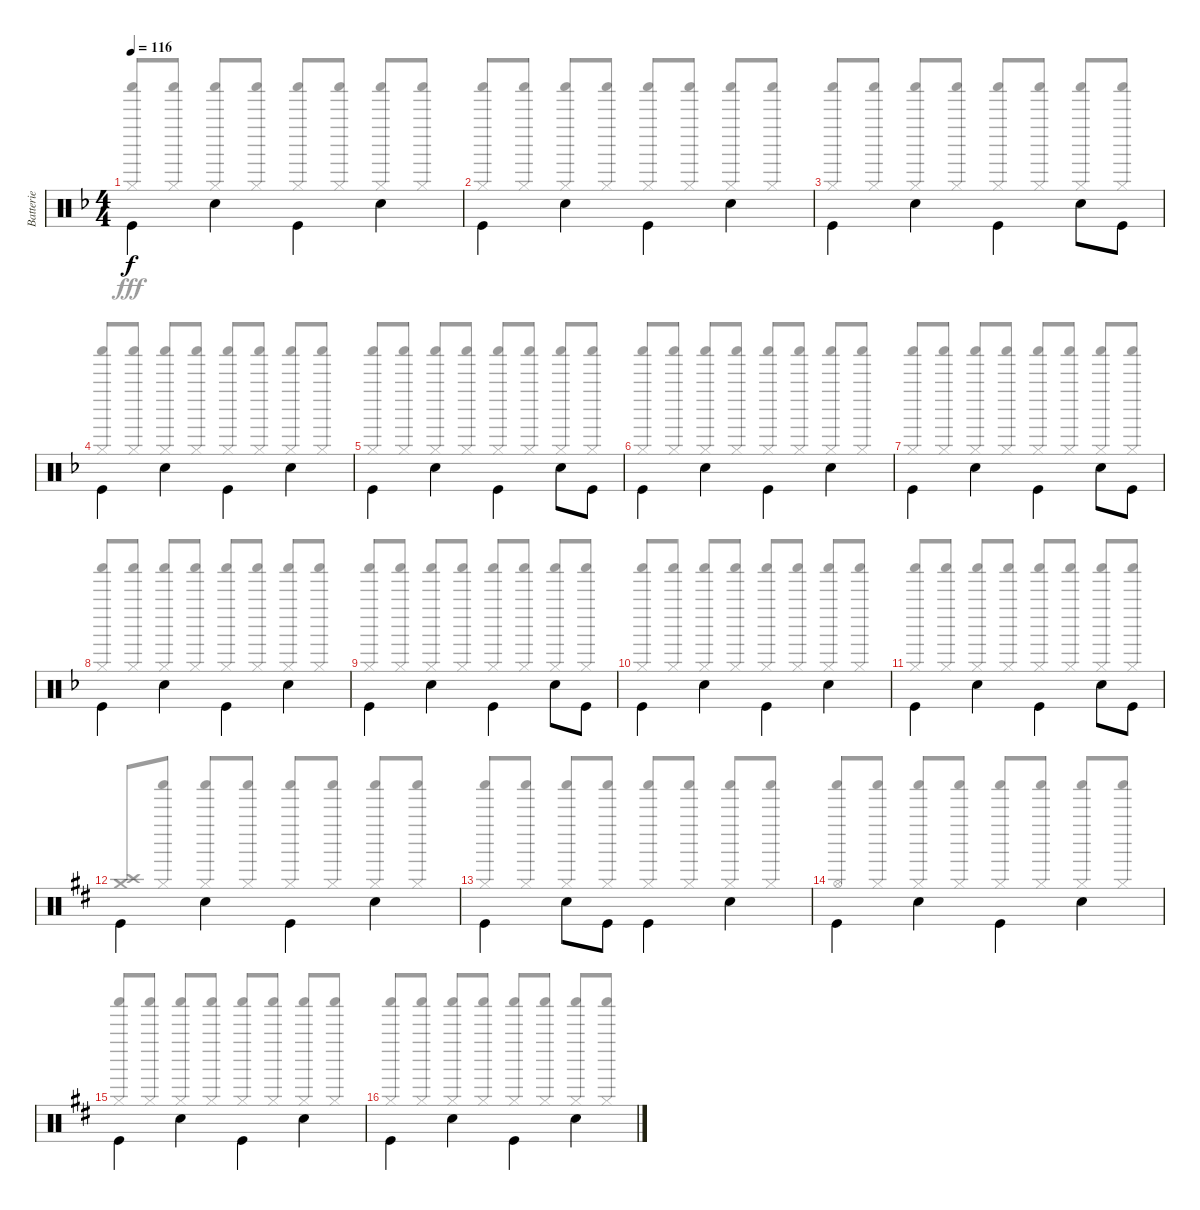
\track ("Batterie" "Batterie") {instrument percussion}
\staff {score}
\articulation defaults
\voice
\ts (4 4)
\tempo 116
\clef neutral
\ks f "Kick (hit)".4{dy f beam Down} "Snare (hit) 2".4{beam Down} "Kick (hit)".4{beam Down} "Snare (hit) 2".4{beam Down}
|
"Kick (hit)".4{beam Down} "Snare (hit) 2".4{beam Down} "Kick (hit)".4{beam Down} "Snare (hit) 2".4{beam Down} |
"Kick (hit)".4{beam Down} "Snare (hit) 2".4{beam Down} "Kick (hit)".4{beam Down} "Snare (hit) 2".8{beam Down} "Kick (hit)".8{beam Down} |
"Kick (hit)".4{beam Down} "Snare (hit) 2".4{beam Down} "Kick (hit)".4{beam Down} "Snare (hit) 2".4{beam Down} |
"Kick (hit)".4{beam Down} "Snare (hit) 2".4{beam Down} "Kick (hit)".4{beam Down} "Snare (hit) 2".8{beam Down} "Kick (hit)".8{beam Down} |
"Kick (hit)".4{beam Down} "Snare (hit) 2".4{beam Down} "Kick (hit)".4{beam Down} "Snare (hit) 2".4{beam Down} |
"Kick (hit)".4{beam Down} "Snare (hit) 2".4{beam Down} "Kick (hit)".4{beam Down} "Snare (hit) 2".8{beam Down} "Kick (hit)".8{beam Down} |
"Kick (hit)".4{beam Down} "Snare (hit) 2".4{beam Down} "Kick (hit)".4{beam Down} "Snare (hit) 2".4{beam Down} |
"Kick (hit)".4{beam Down} "Snare (hit) 2".4{beam Down} "Kick (hit)".4{beam Down} "Snare (hit) 2".8{beam Down} "Kick (hit)".8{beam Down} |
"Kick (hit)".4{beam Down} "Snare (hit) 2".4{beam Down} "Kick (hit)".4{beam Down} "Snare (hit) 2".4{beam Down} |
"Kick (hit)".4{beam Down} "Snare (hit) 2".4{beam Down} "Kick (hit)".4{beam Down} "Snare (hit) 2".8{beam Down} "Kick (hit)".8{beam Down} |
\ks d "Kick (hit)".4{beam Down} "Snare (hit) 2".4{beam Down} "Kick (hit)".4{beam Down} "Snare (hit) 2".4{beam Down}
|
"Kick (hit)".4{beam Down} "Snare (hit) 2".8{beam Down} "Kick (hit)".8{beam Down} "Kick (hit)".4{beam Down} "Snare (hit) 2".4{beam Down} |
"Kick (hit)".4{beam Down} "Snare (hit) 2".4{beam Down} "Kick (hit)".4{beam Down} "Snare (hit) 2".4{beam Down} |
"Kick (hit)".4{beam Down} "Snare (hit) 2".4{beam Down} "Kick (hit)".4{beam Down} "Snare (hit) 2".4{beam Down} |
"Kick (hit)".4{beam Down} "Snare (hit) 2".4{beam Down} "Kick (hit)".4{beam Down} "Snare (hit) 2".4{beam Down}
\voice
\clef neutral
\ottava regular
\simile none
\ks f
("Shaker (hit)" "Hi-Hat (closed)").8{dy fff beam Up} ("Shaker (hit)" "Hi-Hat (closed)").8{beam Up} ("Shaker (hit)" "Hi-Hat (closed)").8{beam Up} ("Shaker (hit)" "Hi-Hat (closed)").8{beam Up} ("Shaker (hit)" "Hi-Hat (closed)").8{beam Up} ("Shaker (hit)" "Hi-Hat (closed)").8{beam Up} ("Shaker (hit)" "Hi-Hat (closed)").8{beam Up} ("Shaker (hit)" "Hi-Hat (closed)").8{beam Up} |
("Shaker (hit)" "Hi-Hat (closed)").8{beam Up} ("Shaker (hit)" "Hi-Hat (closed)").8{beam Up} ("Shaker (hit)" "Hi-Hat (closed)").8{beam Up} ("Shaker (hit)" "Hi-Hat (closed)").8{beam Up} ("Shaker (hit)" "Hi-Hat (closed)").8{beam Up} ("Shaker (hit)" "Hi-Hat (closed)").8{beam Up} ("Shaker (hit)" "Hi-Hat (closed)").8{beam Up} ("Shaker (hit)" "Hi-Hat (closed)").8{beam Up} |
("Shaker (hit)" "Hi-Hat (closed)").8{beam Up} ("Shaker (hit)" "Hi-Hat (closed)").8{beam Up} ("Shaker (hit)" "Hi-Hat (closed)").8{beam Up} ("Shaker (hit)" "Hi-Hat (closed)").8{beam Up} ("Shaker (hit)" "Hi-Hat (closed)").8{beam Up} ("Shaker (hit)" "Hi-Hat (closed)").8{beam Up} ("Shaker (hit)" "Hi-Hat (closed)").8{beam Up} ("Shaker (hit)" "Hi-Hat (closed)").8{beam Up} |
("Shaker (hit)" "Hi-Hat (closed)").8{beam Up} ("Shaker (hit)" "Hi-Hat (closed)").8{beam Up} ("Shaker (hit)" "Hi-Hat (closed)").8{beam Up} ("Shaker (hit)" "Hi-Hat (closed)").8{beam Up} ("Shaker (hit)" "Hi-Hat (closed)").8{beam Up} ("Shaker (hit)" "Hi-Hat (closed)").8{beam Up} ("Shaker (hit)" "Hi-Hat (closed)").8{beam Up} ("Shaker (hit)" "Hi-Hat (closed)").8{beam Up} |
("Shaker (hit)" "Hi-Hat (closed)").8{beam Up} ("Shaker (hit)" "Hi-Hat (closed)").8{beam Up} ("Shaker (hit)" "Hi-Hat (closed)").8{beam Up} ("Shaker (hit)" "Hi-Hat (closed)").8{beam Up} ("Shaker (hit)" "Hi-Hat (closed)").8{beam Up} ("Shaker (hit)" "Hi-Hat (closed)").8{beam Up} ("Shaker (hit)" "Hi-Hat (closed)").8{beam Up} ("Shaker (hit)" "Hi-Hat (closed)").8{beam Up} |
("Shaker (hit)" "Hi-Hat (closed)").8{beam Up} ("Shaker (hit)" "Hi-Hat (closed)").8{beam Up} ("Shaker (hit)" "Hi-Hat (closed)").8{beam Up} ("Shaker (hit)" "Hi-Hat (closed)").8{beam Up} ("Shaker (hit)" "Hi-Hat (closed)").8{beam Up} ("Shaker (hit)" "Hi-Hat (closed)").8{beam Up} ("Shaker (hit)" "Hi-Hat (closed)").8{beam Up} ("Shaker (hit)" "Hi-Hat (closed)").8{beam Up} |
("Shaker (hit)" "Hi-Hat (closed)").8{beam Up} ("Shaker (hit)" "Hi-Hat (closed)").8{beam Up} ("Shaker (hit)" "Hi-Hat (closed)").8{beam Up} ("Shaker (hit)" "Hi-Hat (closed)").8{beam Up} ("Shaker (hit)" "Hi-Hat (closed)").8{beam Up} ("Shaker (hit)" "Hi-Hat (closed)").8{beam Up} ("Shaker (hit)" "Hi-Hat (closed)").8{beam Up} ("Shaker (hit)" "Hi-Hat (closed)").8{beam Up} |
("Shaker (hit)" "Hi-Hat (closed)").8{beam Up} ("Shaker (hit)" "Hi-Hat (closed)").8{beam Up} ("Shaker (hit)" "Hi-Hat (closed)").8{beam Up} ("Shaker (hit)" "Hi-Hat (closed)").8{beam Up} ("Shaker (hit)" "Hi-Hat (closed)").8{beam Up} ("Shaker (hit)" "Hi-Hat (closed)").8{beam Up} ("Shaker (hit)" "Hi-Hat (closed)").8{beam Up} ("Shaker (hit)" "Hi-Hat (closed)").8{beam Up} |
("Shaker (hit)" "Hi-Hat (closed)").8{beam Up} ("Shaker (hit)" "Hi-Hat (closed)").8{beam Up} ("Shaker (hit)" "Hi-Hat (closed)").8{beam Up} ("Shaker (hit)" "Hi-Hat (closed)").8{beam Up} ("Shaker (hit)" "Hi-Hat (closed)").8{beam Up} ("Shaker (hit)" "Hi-Hat (closed)").8{beam Up} ("Shaker (hit)" "Hi-Hat (closed)").8{beam Up} ("Shaker (hit)" "Hi-Hat (closed)").8{beam Up} |
("Shaker (hit)" "Hi-Hat (closed)").8{beam Up} ("Shaker (hit)" "Hi-Hat (closed)").8{beam Up} ("Shaker (hit)" "Hi-Hat (closed)").8{beam Up} ("Shaker (hit)" "Hi-Hat (closed)").8{beam Up} ("Shaker (hit)" "Hi-Hat (closed)").8{beam Up} ("Shaker (hit)" "Hi-Hat (closed)").8{beam Up} ("Shaker (hit)" "Hi-Hat (closed)").8{beam Up} ("Shaker (hit)" "Hi-Hat (closed)").8{beam Up} |
("Shaker (hit)" "Hi-Hat (closed)").8{beam Up} ("Shaker (hit)" "Hi-Hat (closed)").8{beam Up} ("Shaker (hit)" "Hi-Hat (closed)").8{beam Up} ("Shaker (hit)" "Hi-Hat (closed)").8{beam Up} ("Shaker (hit)" "Hi-Hat (closed)").8{beam Up} ("Shaker (hit)" "Hi-Hat (closed)").8{beam Up} ("Shaker (hit)" "Hi-Hat (closed)").8{beam Up} ("Shaker (hit)" "Hi-Hat (closed)").8{beam Up} |
\ks d
("Crash medium (hit)" "Crash high (hit)").8{beam Up} ("Shaker (hit)" "Hi-Hat (closed)").8{beam Up} ("Shaker (hit)" "Hi-Hat (closed)").8{beam Up} ("Shaker (hit)" "Hi-Hat (closed)").8{beam Up} ("Shaker (hit)" "Hi-Hat (closed)").8{beam Up} ("Shaker (hit)" "Hi-Hat (closed)").8{beam Up} ("Shaker (hit)" "Hi-Hat (closed)").8{beam Up} ("Shaker (hit)" "Hi-Hat (closed)").8{beam Up} |
("Shaker (hit)" "Hi-Hat (closed)").8{beam Up} ("Shaker (hit)" "Hi-Hat (closed)").8{beam Up} ("Shaker (hit)" "Hi-Hat (closed)").8{beam Up} ("Shaker (hit)" "Hi-Hat (closed)").8{beam Up} ("Shaker (hit)" "Hi-Hat (closed)").8{beam Up} ("Shaker (hit)" "Hi-Hat (closed)").8{beam Up} ("Shaker (hit)" "Hi-Hat (closed)").8{beam Up} ("Shaker (hit)" "Hi-Hat (closed)").8{beam Up} |
("Shaker (hit)" "Hi-Hat (open)").8{beam Up} ("Shaker (hit)" "Hi-Hat (closed)").8{beam Up} ("Shaker (hit)" "Hi-Hat (closed)").8{beam Up} ("Shaker (hit)" "Hi-Hat (closed)").8{beam Up} ("Shaker (hit)" "Hi-Hat (closed)").8{beam Up} ("Shaker (hit)" "Hi-Hat (closed)").8{beam Up} ("Shaker (hit)" "Hi-Hat (closed)").8{beam Up} ("Shaker (hit)" "Hi-Hat (closed)").8{beam Up} |
("Shaker (hit)" "Hi-Hat (closed)").8{beam Up} ("Shaker (hit)" "Hi-Hat (closed)").8{beam Up} ("Shaker (hit)" "Hi-Hat (closed)").8{beam Up} ("Shaker (hit)" "Hi-Hat (closed)").8{beam Up} ("Shaker (hit)" "Hi-Hat (closed)").8{beam Up} ("Shaker (hit)" "Hi-Hat (closed)").8{beam Up} ("Shaker (hit)" "Hi-Hat (closed)").8{beam Up} ("Shaker (hit)" "Hi-Hat (closed)").8{beam Up} |
("Shaker (hit)" "Hi-Hat (closed)").8{beam Up} ("Shaker (hit)" "Hi-Hat (closed)").8{beam Up} ("Shaker (hit)" "Hi-Hat (closed)").8{beam Up} ("Shaker (hit)" "Hi-Hat (closed)").8{beam Up} ("Shaker (hit)" "Hi-Hat (closed)").8{beam Up} ("Shaker (hit)" "Hi-Hat (closed)").8{beam Up} ("Shaker (hit)" "Hi-Hat (closed)").8{beam Up} ("Shaker (hit)" "Hi-Hat (closed)").8{beam Up}
